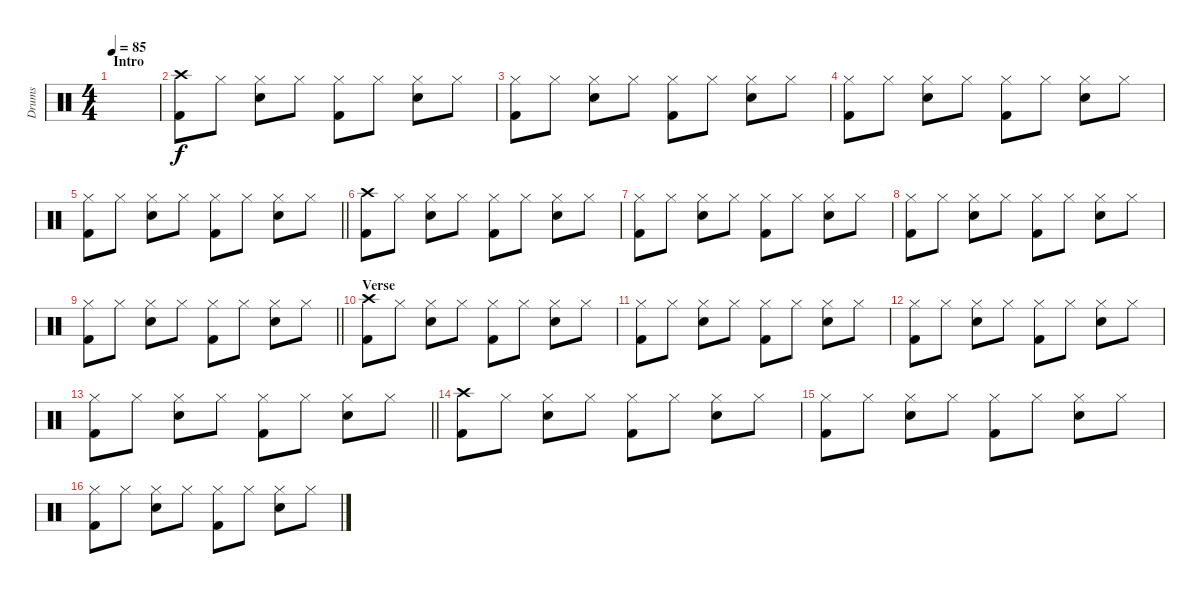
\track ("Drums" "Drums") {instrument percussion}
\staff {score}
\articulation defaults
\ts (4 4)
\section ("" "Intro")
\tempo 85
\clef neutral
\ks c
|
("Crash high (hit)" "Kick (hit) 2").8 "Hi-Hat (closed)".8 ("Hi-Hat (closed)" "Snare (hit) 2").8 "Hi-Hat (closed)".8 ("Hi-Hat (closed)" "Kick (hit) 2").8 "Hi-Hat (closed)".8 ("Hi-Hat (closed)" "Snare (hit) 2").8 "Hi-Hat (closed)".8 |
("Hi-Hat (closed)" "Kick (hit) 2").8 "Hi-Hat (closed)".8 ("Hi-Hat (closed)" "Snare (hit) 2").8 "Hi-Hat (closed)".8 ("Hi-Hat (closed)" "Kick (hit) 2").8 "Hi-Hat (closed)".8 ("Hi-Hat (closed)" "Snare (hit) 2").8 "Hi-Hat (closed)".8 |
("Hi-Hat (closed)" "Kick (hit) 2").8 "Hi-Hat (closed)".8 ("Hi-Hat (closed)" "Snare (hit) 2").8 "Hi-Hat (closed)".8 ("Hi-Hat (closed)" "Kick (hit) 2").8 "Hi-Hat (closed)".8 ("Hi-Hat (closed)" "Snare (hit) 2").8 "Hi-Hat (closed)".8 |
\barLineRight lightlight
("Hi-Hat (closed)" "Kick (hit) 2").8 "Hi-Hat (closed)".8 ("Hi-Hat (closed)" "Snare (hit) 2").8 "Hi-Hat (closed)".8 ("Hi-Hat (closed)" "Kick (hit) 2").8 "Hi-Hat (closed)".8 ("Hi-Hat (closed)" "Snare (hit) 2").8 "Hi-Hat (closed)".8 |
("Crash high (hit)" "Kick (hit) 2").8 "Hi-Hat (closed)".8 ("Hi-Hat (closed)" "Snare (hit) 2").8 "Hi-Hat (closed)".8 ("Hi-Hat (closed)" "Kick (hit) 2").8 "Hi-Hat (closed)".8 ("Hi-Hat (closed)" "Snare (hit) 2").8 "Hi-Hat (closed)".8 |
("Hi-Hat (closed)" "Kick (hit) 2").8 "Hi-Hat (closed)".8 ("Hi-Hat (closed)" "Snare (hit) 2").8 "Hi-Hat (closed)".8 ("Hi-Hat (closed)" "Kick (hit) 2").8 "Hi-Hat (closed)".8 ("Hi-Hat (closed)" "Snare (hit) 2").8 "Hi-Hat (closed)".8 |
("Hi-Hat (closed)" "Kick (hit) 2").8 "Hi-Hat (closed)".8 ("Hi-Hat (closed)" "Snare (hit) 2").8 "Hi-Hat (closed)".8 ("Hi-Hat (closed)" "Kick (hit) 2").8 "Hi-Hat (closed)".8 ("Hi-Hat (closed)" "Snare (hit) 2").8 "Hi-Hat (closed)".8 |
\barLineRight lightlight
("Hi-Hat (closed)" "Kick (hit) 2").8 "Hi-Hat (closed)".8 ("Hi-Hat (closed)" "Snare (hit) 2").8 "Hi-Hat (closed)".8 ("Hi-Hat (closed)" "Kick (hit) 2").8 "Hi-Hat (closed)".8 ("Hi-Hat (closed)" "Snare (hit) 2").8 "Hi-Hat (closed)".8 |
\section ("" "Verse")
("Crash high (hit)" "Kick (hit) 2").8 "Hi-Hat (closed)".8 ("Hi-Hat (closed)" "Snare (hit) 2").8 "Hi-Hat (closed)".8 ("Hi-Hat (closed)" "Kick (hit) 2").8 "Hi-Hat (closed)".8 ("Hi-Hat (closed)" "Snare (hit) 2").8 "Hi-Hat (closed)".8 |
("Hi-Hat (closed)" "Kick (hit) 2").8 "Hi-Hat (closed)".8 ("Hi-Hat (closed)" "Snare (hit) 2").8 "Hi-Hat (closed)".8 ("Hi-Hat (closed)" "Kick (hit) 2").8 "Hi-Hat (closed)".8 ("Hi-Hat (closed)" "Snare (hit) 2").8 "Hi-Hat (closed)".8 |
("Hi-Hat (closed)" "Kick (hit) 2").8 "Hi-Hat (closed)".8 ("Hi-Hat (closed)" "Snare (hit) 2").8 "Hi-Hat (closed)".8 ("Hi-Hat (closed)" "Kick (hit) 2").8 "Hi-Hat (closed)".8 ("Hi-Hat (closed)" "Snare (hit) 2").8 "Hi-Hat (closed)".8 |
\barLineRight lightlight
("Hi-Hat (closed)" "Kick (hit) 2").8 "Hi-Hat (closed)".8 ("Hi-Hat (closed)" "Snare (hit) 2").8 "Hi-Hat (closed)".8 ("Hi-Hat (closed)" "Kick (hit) 2").8 "Hi-Hat (closed)".8 ("Hi-Hat (closed)" "Snare (hit) 2").8 "Hi-Hat (closed)".8 |
("Crash high (hit)" "Kick (hit) 2").8 "Hi-Hat (closed)".8 ("Hi-Hat (closed)" "Snare (hit) 2").8 "Hi-Hat (closed)".8 ("Hi-Hat (closed)" "Kick (hit) 2").8 "Hi-Hat (closed)".8 ("Hi-Hat (closed)" "Snare (hit) 2").8 "Hi-Hat (closed)".8 |
("Hi-Hat (closed)" "Kick (hit) 2").8 "Hi-Hat (closed)".8 ("Hi-Hat (closed)" "Snare (hit) 2").8 "Hi-Hat (closed)".8 ("Hi-Hat (closed)" "Kick (hit) 2").8 "Hi-Hat (closed)".8 ("Hi-Hat (closed)" "Snare (hit) 2").8 "Hi-Hat (closed)".8 |
("Hi-Hat (closed)" "Kick (hit) 2").8 "Hi-Hat (closed)".8 ("Hi-Hat (closed)" "Snare (hit) 2").8 "Hi-Hat (closed)".8 ("Hi-Hat (closed)" "Kick (hit) 2").8 "Hi-Hat (closed)".8 ("Hi-Hat (closed)" "Snare (hit) 2").8 "Hi-Hat (closed)".8
